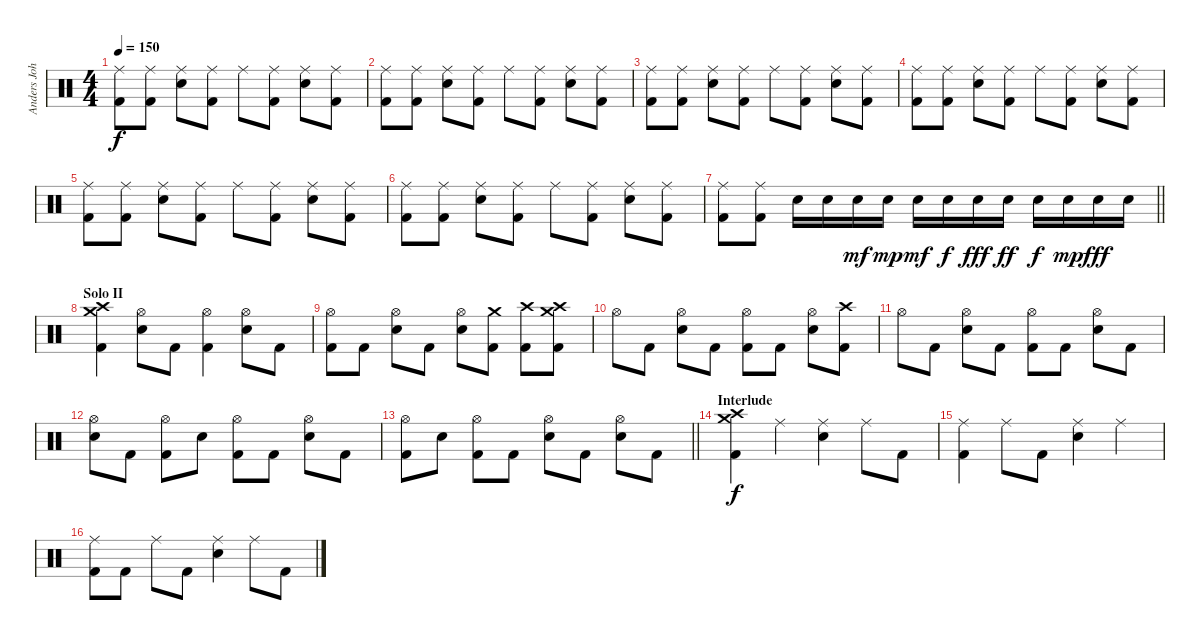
\track ("Anders Johansson" "Anders Joh") {instrument percussion}
\staff {score}
\articulation defaults
\ts (4 4)
\tempo 150
\clef neutral
\ks c
("Ride (middle)" "Kick (hit) 2").8{dy f} ("Ride (middle)" "Kick (hit) 2").8 ("Ride (middle)" "Snare (hit) 2").8 ("Ride (middle)" "Kick (hit) 2").8 "Ride (middle)".8 ("Ride (middle)" "Kick (hit) 2").8 ("Ride (middle)" "Snare (hit) 2").8 ("Ride (middle)" "Kick (hit) 2").8 |
("Ride (middle)" "Kick (hit) 2").8 ("Ride (middle)" "Kick (hit) 2").8 ("Ride (middle)" "Snare (hit) 2").8 ("Ride (middle)" "Kick (hit) 2").8 "Ride (middle)".8 ("Ride (middle)" "Kick (hit) 2").8 ("Ride (middle)" "Snare (hit) 2").8 ("Ride (middle)" "Kick (hit) 2").8 |
("Ride (middle)" "Kick (hit) 2").8 ("Ride (middle)" "Kick (hit) 2").8 ("Ride (middle)" "Snare (hit) 2").8 ("Ride (middle)" "Kick (hit) 2").8 "Ride (middle)".8 ("Ride (middle)" "Kick (hit) 2").8 ("Ride (middle)" "Snare (hit) 2").8 ("Ride (middle)" "Kick (hit) 2").8 |
("Ride (middle)" "Kick (hit) 2").8 ("Ride (middle)" "Kick (hit) 2").8 ("Ride (middle)" "Snare (hit) 2").8 ("Ride (middle)" "Kick (hit) 2").8 "Ride (middle)".8 ("Ride (middle)" "Kick (hit) 2").8 ("Ride (middle)" "Snare (hit) 2").8 ("Ride (middle)" "Kick (hit) 2").8 |
("Ride (middle)" "Kick (hit) 2").8 ("Ride (middle)" "Kick (hit) 2").8 ("Ride (middle)" "Snare (hit) 2").8 ("Ride (middle)" "Kick (hit) 2").8 "Ride (middle)".8 ("Ride (middle)" "Kick (hit) 2").8 ("Ride (middle)" "Snare (hit) 2").8 ("Ride (middle)" "Kick (hit) 2").8 |
("Ride (middle)" "Kick (hit) 2").8 ("Ride (middle)" "Kick (hit) 2").8 ("Ride (middle)" "Snare (hit) 2").8 ("Ride (middle)" "Kick (hit) 2").8 "Ride (middle)".8 ("Ride (middle)" "Kick (hit) 2").8 ("Ride (middle)" "Snare (hit) 2").8 ("Ride (middle)" "Kick (hit) 2").8 |
\barLineRight lightlight
("Ride (middle)" "Kick (hit) 2").8 ("Ride (middle)" "Kick (hit) 2").8 "Snare (hit) 2".16 "Snare (hit) 2".16 "Snare (hit) 2".16{dy mf} "Snare (hit) 2".16{dy mp} "Snare (hit) 2".16{dy mf} "Snare (hit) 2".16{dy f} "Snare (hit) 2".16{dy fff} "Snare (hit) 2".16{dy ff} "Snare (hit) 2".16{dy f} "Snare (hit) 2".16{dy mp} "Snare (hit) 2".16{dy fff} "Snare (hit) 2".16 |
\section ("" "Solo II")
("Crash high (hit)" "Crash medium (hit)" "Kick (hit) 2").4 ("Hi-Hat (open)" "Snare (hit) 2").8 "Kick (hit) 2".8 ("Hi-Hat (open)" "Kick (hit) 2").4 ("Hi-Hat (open)" "Snare (hit) 2").8 "Kick (hit) 2".8 |
("Hi-Hat (open)" "Kick (hit) 2").8 "Kick (hit) 2".8 ("Hi-Hat (open)" "Snare (hit) 2").8 "Kick (hit) 2".8 ("Hi-Hat (open)" "Snare (hit) 2").8 ("Crash medium (hit)" "Kick (hit) 2").8 ("Crash high (hit)" "Kick (hit) 2").8 ("Crash medium (hit)" "Crash high (hit)" "Kick (hit) 2").8 |
"Hi-Hat (open)".8 "Kick (hit) 2".8 ("Hi-Hat (open)" "Snare (hit) 2").8 "Kick (hit) 2".8 ("Hi-Hat (open)" "Kick (hit) 2").8 "Kick (hit) 2".8 ("Hi-Hat (open)" "Snare (hit) 2").8 ("Crash high (hit)" "Kick (hit) 2").8 |
"Hi-Hat (open)".8 "Kick (hit) 2".8 ("Hi-Hat (open)" "Snare (hit) 2").8 "Kick (hit) 2".8 ("Hi-Hat (open)" "Kick (hit) 2").8 "Kick (hit) 2".8 ("Hi-Hat (open)" "Snare (hit) 2").8 "Kick (hit) 2".8 |
("Hi-Hat (open)" "Snare (hit) 2").8 "Kick (hit) 2".8 ("Hi-Hat (open)" "Kick (hit) 2").8 "Snare (hit) 2".8 ("Hi-Hat (open)" "Kick (hit) 2").8 "Kick (hit) 2".8 ("Hi-Hat (open)" "Snare (hit) 2").8 "Kick (hit) 2".8 |
\barLineRight lightlight
("Hi-Hat (open)" "Kick (hit) 2").8 "Snare (hit) 2".8 ("Hi-Hat (open)" "Kick (hit) 2").8 "Kick (hit) 2".8 ("Hi-Hat (open)" "Snare (hit) 2").8 "Kick (hit) 2".8 ("Hi-Hat (open)" "Snare (hit) 2").8 "Kick (hit) 2".8 |
\section ("" "Interlude")
("Crash medium (hit)" "Crash high (hit)" "Kick (hit) 2").4{dy f} "Ride (middle)".4 ("Ride (middle)" "Snare (hit) 2").4 "Ride (middle)".8 "Kick (hit) 2".8 |
("Ride (middle)" "Kick (hit) 2").4 "Ride (middle)".8 "Kick (hit) 2".8 ("Ride (middle)" "Snare (hit) 2").4 "Ride (middle)".4 |
("Ride (middle)" "Kick (hit) 2").8 "Kick (hit) 2".8 "Ride (middle)".8 "Kick (hit) 2".8 ("Ride (middle)" "Snare (hit) 2").4 "Ride (middle)".8 "Kick (hit) 2".8
